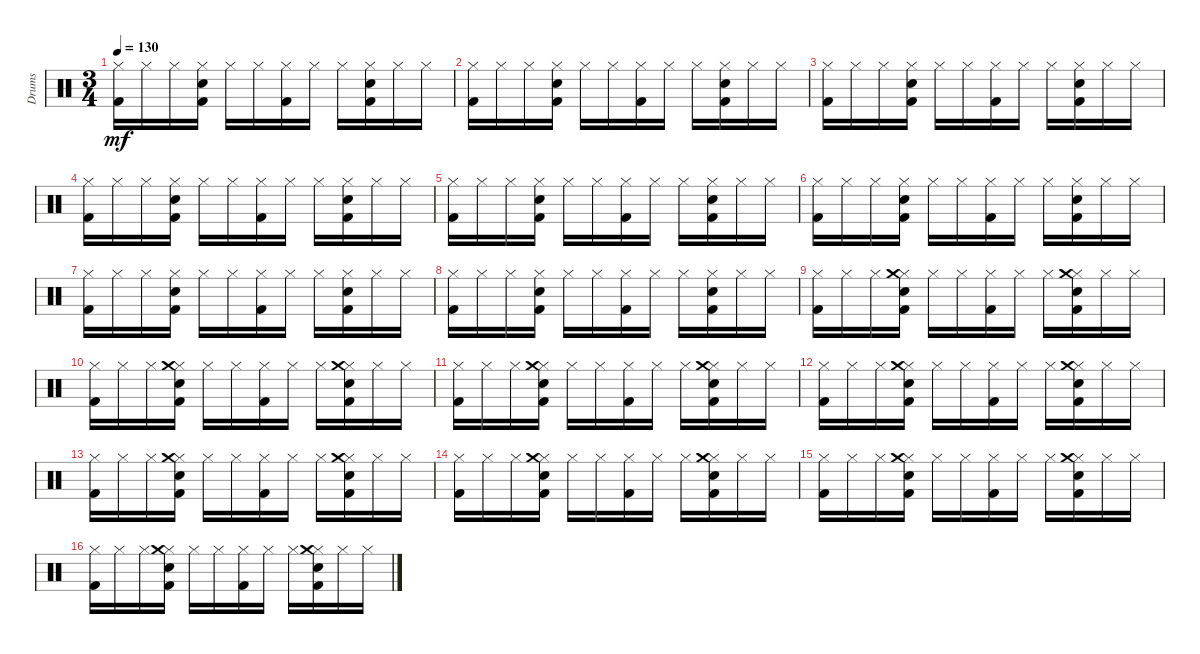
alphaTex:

\track ("Drums" "Drums") {instrument percussion}
\staff {score}
\articulation defaults
\ts (3 4)
\tempo 130
\clef neutral
\ks c
("Kick (hit) 2" "Hi-Hat (closed)").16{dy mf} "Hi-Hat (closed)".16 "Hi-Hat (closed)".16 ("Kick (hit) 2" "Snare (hit) 2" "Hi-Hat (closed)").16 "Hi-Hat (closed)".16 "Hi-Hat (closed)".16 ("Kick (hit) 2" "Hi-Hat (closed)").16 "Hi-Hat (closed)".16 "Hi-Hat (closed)".16 ("Kick (hit) 2" "Snare (hit) 2" "Hi-Hat (closed)").16 "Hi-Hat (closed)".16 "Hi-Hat (closed)".16 |
("Kick (hit) 2" "Hi-Hat (closed)").16 "Hi-Hat (closed)".16 "Hi-Hat (closed)".16 ("Kick (hit) 2" "Snare (hit) 2" "Hi-Hat (closed)").16 "Hi-Hat (closed)".16 "Hi-Hat (closed)".16 ("Kick (hit) 2" "Hi-Hat (closed)").16 "Hi-Hat (closed)".16 "Hi-Hat (closed)".16 ("Kick (hit) 2" "Snare (hit) 2" "Hi-Hat (closed)").16 "Hi-Hat (closed)".16 "Hi-Hat (closed)".16 |
("Kick (hit) 2" "Hi-Hat (closed)").16 "Hi-Hat (closed)".16 "Hi-Hat (closed)".16 ("Kick (hit) 2" "Snare (hit) 2" "Hi-Hat (closed)").16 "Hi-Hat (closed)".16 "Hi-Hat (closed)".16 ("Kick (hit) 2" "Hi-Hat (closed)").16 "Hi-Hat (closed)".16 "Hi-Hat (closed)".16 ("Kick (hit) 2" "Snare (hit) 2" "Hi-Hat (closed)").16 "Hi-Hat (closed)".16 "Hi-Hat (closed)".16 |
("Kick (hit) 2" "Hi-Hat (closed)").16 "Hi-Hat (closed)".16 "Hi-Hat (closed)".16 ("Kick (hit) 2" "Snare (hit) 2" "Hi-Hat (closed)").16 "Hi-Hat (closed)".16 "Hi-Hat (closed)".16 ("Kick (hit) 2" "Hi-Hat (closed)").16 "Hi-Hat (closed)".16 "Hi-Hat (closed)".16 ("Kick (hit) 2" "Snare (hit) 2" "Hi-Hat (closed)").16 "Hi-Hat (closed)".16 "Hi-Hat (closed)".16 |
("Kick (hit) 2" "Hi-Hat (closed)").16 "Hi-Hat (closed)".16 "Hi-Hat (closed)".16 ("Kick (hit) 2" "Snare (hit) 2" "Hi-Hat (closed)").16 "Hi-Hat (closed)".16 "Hi-Hat (closed)".16 ("Kick (hit) 2" "Hi-Hat (closed)").16 "Hi-Hat (closed)".16 "Hi-Hat (closed)".16 ("Kick (hit) 2" "Snare (hit) 2" "Hi-Hat (closed)").16 "Hi-Hat (closed)".16 "Hi-Hat (closed)".16 |
("Kick (hit) 2" "Hi-Hat (closed)").16 "Hi-Hat (closed)".16 "Hi-Hat (closed)".16 ("Kick (hit) 2" "Snare (hit) 2" "Hi-Hat (closed)").16 "Hi-Hat (closed)".16 "Hi-Hat (closed)".16 ("Kick (hit) 2" "Hi-Hat (closed)").16 "Hi-Hat (closed)".16 "Hi-Hat (closed)".16 ("Kick (hit) 2" "Snare (hit) 2" "Hi-Hat (closed)").16 "Hi-Hat (closed)".16 "Hi-Hat (closed)".16 |
("Kick (hit) 2" "Hi-Hat (closed)").16 "Hi-Hat (closed)".16 "Hi-Hat (closed)".16 ("Kick (hit) 2" "Snare (hit) 2" "Hi-Hat (closed)").16 "Hi-Hat (closed)".16 "Hi-Hat (closed)".16 ("Kick (hit) 2" "Hi-Hat (closed)").16 "Hi-Hat (closed)".16 "Hi-Hat (closed)".16 ("Kick (hit) 2" "Snare (hit) 2" "Hi-Hat (closed)").16 "Hi-Hat (closed)".16 "Hi-Hat (closed)".16 |
("Kick (hit) 2" "Hi-Hat (closed)").16 "Hi-Hat (closed)".16 "Hi-Hat (closed)".16 ("Kick (hit) 2" "Snare (hit) 2" "Hi-Hat (closed)").16 "Hi-Hat (closed)".16 "Hi-Hat (closed)".16 ("Kick (hit) 2" "Hi-Hat (closed)").16 "Hi-Hat (closed)".16 "Hi-Hat (closed)".16 ("Kick (hit) 2" "Snare (hit) 2" "Hi-Hat (closed)").16 "Hi-Hat (closed)".16 "Hi-Hat (closed)".16 |
("Kick (hit) 2" "Hi-Hat (closed)").16 "Hi-Hat (closed)".16 "Hi-Hat (closed)".16 ("Kick (hit) 2" "Snare (hit) 2" "Hi-Hat (closed)" "Crash medium (hit)").16 "Hi-Hat (closed)".16 "Hi-Hat (closed)".16 ("Kick (hit) 2" "Hi-Hat (closed)").16 "Hi-Hat (closed)".16 "Hi-Hat (closed)".16 ("Kick (hit) 2" "Snare (hit) 2" "Hi-Hat (closed)" "Crash medium (hit)").16 "Hi-Hat (closed)".16 "Hi-Hat (closed)".16 |
("Kick (hit) 2" "Hi-Hat (closed)").16 "Hi-Hat (closed)".16 "Hi-Hat (closed)".16 ("Kick (hit) 2" "Snare (hit) 2" "Hi-Hat (closed)" "Crash medium (hit)").16 "Hi-Hat (closed)".16 "Hi-Hat (closed)".16 ("Kick (hit) 2" "Hi-Hat (closed)").16 "Hi-Hat (closed)".16 "Hi-Hat (closed)".16 ("Kick (hit) 2" "Snare (hit) 2" "Hi-Hat (closed)" "Crash medium (hit)").16 "Hi-Hat (closed)".16 "Hi-Hat (closed)".16 |
("Kick (hit) 2" "Hi-Hat (closed)").16 "Hi-Hat (closed)".16 "Hi-Hat (closed)".16 ("Kick (hit) 2" "Snare (hit) 2" "Hi-Hat (closed)" "Crash medium (hit)").16 "Hi-Hat (closed)".16 "Hi-Hat (closed)".16 ("Kick (hit) 2" "Hi-Hat (closed)").16 "Hi-Hat (closed)".16 "Hi-Hat (closed)".16 ("Kick (hit) 2" "Snare (hit) 2" "Hi-Hat (closed)" "Crash medium (hit)").16 "Hi-Hat (closed)".16 "Hi-Hat (closed)".16 |
("Kick (hit) 2" "Hi-Hat (closed)").16 "Hi-Hat (closed)".16 "Hi-Hat (closed)".16 ("Kick (hit) 2" "Snare (hit) 2" "Hi-Hat (closed)" "Crash medium (hit)").16 "Hi-Hat (closed)".16 "Hi-Hat (closed)".16 ("Kick (hit) 2" "Hi-Hat (closed)").16 "Hi-Hat (closed)".16 "Hi-Hat (closed)".16 ("Kick (hit) 2" "Snare (hit) 2" "Hi-Hat (closed)" "Crash medium (hit)").16 "Hi-Hat (closed)".16 "Hi-Hat (closed)".16 |
("Kick (hit) 2" "Hi-Hat (closed)").16 "Hi-Hat (closed)".16 "Hi-Hat (closed)".16 ("Kick (hit) 2" "Snare (hit) 2" "Hi-Hat (closed)" "Crash medium (hit)").16 "Hi-Hat (closed)".16 "Hi-Hat (closed)".16 ("Kick (hit) 2" "Hi-Hat (closed)").16 "Hi-Hat (closed)".16 "Hi-Hat (closed)".16 ("Kick (hit) 2" "Snare (hit) 2" "Hi-Hat (closed)" "Crash medium (hit)").16 "Hi-Hat (closed)".16 "Hi-Hat (closed)".16 |
("Kick (hit) 2" "Hi-Hat (closed)").16 "Hi-Hat (closed)".16 "Hi-Hat (closed)".16 ("Kick (hit) 2" "Snare (hit) 2" "Hi-Hat (closed)" "Crash medium (hit)").16 "Hi-Hat (closed)".16 "Hi-Hat (closed)".16 ("Kick (hit) 2" "Hi-Hat (closed)").16 "Hi-Hat (closed)".16 "Hi-Hat (closed)".16 ("Kick (hit) 2" "Snare (hit) 2" "Hi-Hat (closed)" "Crash medium (hit)").16 "Hi-Hat (closed)".16 "Hi-Hat (closed)".16 |
("Kick (hit) 2" "Hi-Hat (closed)").16 "Hi-Hat (closed)".16 "Hi-Hat (closed)".16 ("Kick (hit) 2" "Snare (hit) 2" "Hi-Hat (closed)" "Crash medium (hit)").16 "Hi-Hat (closed)".16 "Hi-Hat (closed)".16 ("Kick (hit) 2" "Hi-Hat (closed)").16 "Hi-Hat (closed)".16 "Hi-Hat (closed)".16 ("Kick (hit) 2" "Snare (hit) 2" "Hi-Hat (closed)" "Crash medium (hit)").16 "Hi-Hat (closed)".16 "Hi-Hat (closed)".16 |
("Kick (hit) 2" "Hi-Hat (closed)").16 "Hi-Hat (closed)".16 "Hi-Hat (closed)".16 ("Kick (hit) 2" "Snare (hit) 2" "Hi-Hat (closed)" "Crash medium (hit)").16 "Hi-Hat (closed)".16 "Hi-Hat (closed)".16 ("Kick (hit) 2" "Hi-Hat (closed)").16 "Hi-Hat (closed)".16 "Hi-Hat (closed)".16 ("Kick (hit) 2" "Snare (hit) 2" "Hi-Hat (closed)" "Crash medium (hit)").16 "Hi-Hat (closed)".16 "Hi-Hat (closed)".16
